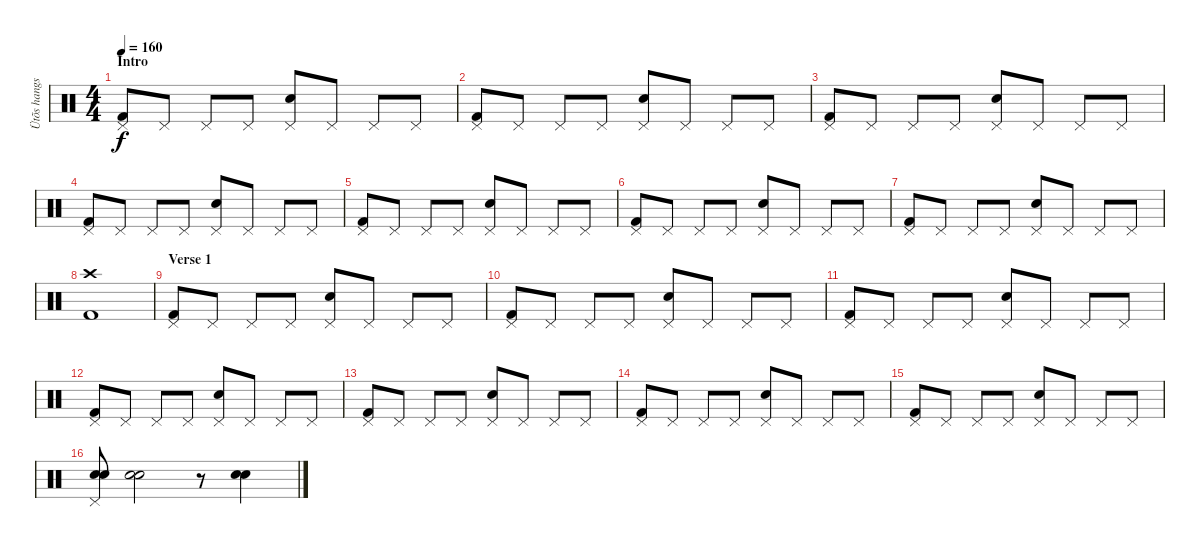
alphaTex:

\track ("Ütõs hangszer" "Ütõs hangs") {instrument percussion}
\staff {score}
\articulation defaults
\ts (4 4)
\section ("" "Intro")
\tempo 160
\clef neutral
\ks c
("Pedal Hi-Hat (hit)" "Kick (hit) 2").8{dy f} "Pedal Hi-Hat (hit)".8 "Pedal Hi-Hat (hit)".8 "Pedal Hi-Hat (hit)".8 ("Pedal Hi-Hat (hit)" "Snare (hit) 2").8 "Pedal Hi-Hat (hit)".8 "Pedal Hi-Hat (hit)".8 "Pedal Hi-Hat (hit)".8 |
("Pedal Hi-Hat (hit)" "Kick (hit) 2").8 "Pedal Hi-Hat (hit)".8 "Pedal Hi-Hat (hit)".8 "Pedal Hi-Hat (hit)".8 ("Pedal Hi-Hat (hit)" "Snare (hit) 2").8 "Pedal Hi-Hat (hit)".8 "Pedal Hi-Hat (hit)".8 "Pedal Hi-Hat (hit)".8 |
("Pedal Hi-Hat (hit)" "Kick (hit) 2").8 "Pedal Hi-Hat (hit)".8 "Pedal Hi-Hat (hit)".8 "Pedal Hi-Hat (hit)".8 ("Pedal Hi-Hat (hit)" "Snare (hit) 2").8 "Pedal Hi-Hat (hit)".8 "Pedal Hi-Hat (hit)".8 "Pedal Hi-Hat (hit)".8 |
("Pedal Hi-Hat (hit)" "Kick (hit) 2").8 "Pedal Hi-Hat (hit)".8 "Pedal Hi-Hat (hit)".8 "Pedal Hi-Hat (hit)".8 ("Pedal Hi-Hat (hit)" "Snare (hit) 2").8 "Pedal Hi-Hat (hit)".8 "Pedal Hi-Hat (hit)".8 "Pedal Hi-Hat (hit)".8 |
("Pedal Hi-Hat (hit)" "Kick (hit) 2").8 "Pedal Hi-Hat (hit)".8 "Pedal Hi-Hat (hit)".8 "Pedal Hi-Hat (hit)".8 ("Pedal Hi-Hat (hit)" "Snare (hit) 2").8 "Pedal Hi-Hat (hit)".8 "Pedal Hi-Hat (hit)".8 "Pedal Hi-Hat (hit)".8 |
("Pedal Hi-Hat (hit)" "Kick (hit) 2").8 "Pedal Hi-Hat (hit)".8 "Pedal Hi-Hat (hit)".8 "Pedal Hi-Hat (hit)".8 ("Pedal Hi-Hat (hit)" "Snare (hit) 2").8 "Pedal Hi-Hat (hit)".8 "Pedal Hi-Hat (hit)".8 "Pedal Hi-Hat (hit)".8 |
("Pedal Hi-Hat (hit)" "Kick (hit) 2").8 "Pedal Hi-Hat (hit)".8 "Pedal Hi-Hat (hit)".8 "Pedal Hi-Hat (hit)".8 ("Pedal Hi-Hat (hit)" "Snare (hit) 2").8 "Pedal Hi-Hat (hit)".8 "Pedal Hi-Hat (hit)".8 "Pedal Hi-Hat (hit)".8 |
("Crash high (hit)" "Kick (hit) 2").1 |
\section ("" "Verse 1")
("Pedal Hi-Hat (hit)" "Kick (hit) 2").8 "Pedal Hi-Hat (hit)".8 "Pedal Hi-Hat (hit)".8 "Pedal Hi-Hat (hit)".8 ("Pedal Hi-Hat (hit)" "Snare (hit) 2").8 "Pedal Hi-Hat (hit)".8 "Pedal Hi-Hat (hit)".8 "Pedal Hi-Hat (hit)".8 |
("Pedal Hi-Hat (hit)" "Kick (hit) 2").8 "Pedal Hi-Hat (hit)".8 "Pedal Hi-Hat (hit)".8 "Pedal Hi-Hat (hit)".8 ("Pedal Hi-Hat (hit)" "Snare (hit) 2").8 "Pedal Hi-Hat (hit)".8 "Pedal Hi-Hat (hit)".8 "Pedal Hi-Hat (hit)".8 |
("Pedal Hi-Hat (hit)" "Kick (hit) 2").8 "Pedal Hi-Hat (hit)".8 "Pedal Hi-Hat (hit)".8 "Pedal Hi-Hat (hit)".8 ("Pedal Hi-Hat (hit)" "Snare (hit) 2").8 "Pedal Hi-Hat (hit)".8 "Pedal Hi-Hat (hit)".8 "Pedal Hi-Hat (hit)".8 |
("Pedal Hi-Hat (hit)" "Kick (hit) 2").8 "Pedal Hi-Hat (hit)".8 "Pedal Hi-Hat (hit)".8 "Pedal Hi-Hat (hit)".8 ("Pedal Hi-Hat (hit)" "Snare (hit) 2").8 "Pedal Hi-Hat (hit)".8 "Pedal Hi-Hat (hit)".8 "Pedal Hi-Hat (hit)".8 |
("Pedal Hi-Hat (hit)" "Kick (hit) 2").8 "Pedal Hi-Hat (hit)".8 "Pedal Hi-Hat (hit)".8 "Pedal Hi-Hat (hit)".8 ("Pedal Hi-Hat (hit)" "Snare (hit) 2").8 "Pedal Hi-Hat (hit)".8 "Pedal Hi-Hat (hit)".8 "Pedal Hi-Hat (hit)".8 |
("Pedal Hi-Hat (hit)" "Kick (hit) 2").8 "Pedal Hi-Hat (hit)".8 "Pedal Hi-Hat (hit)".8 "Pedal Hi-Hat (hit)".8 ("Pedal Hi-Hat (hit)" "Snare (hit) 2").8 "Pedal Hi-Hat (hit)".8 "Pedal Hi-Hat (hit)".8 "Pedal Hi-Hat (hit)".8 |
("Pedal Hi-Hat (hit)" "Kick (hit) 2").8 "Pedal Hi-Hat (hit)".8 "Pedal Hi-Hat (hit)".8 "Pedal Hi-Hat (hit)".8 ("Pedal Hi-Hat (hit)" "Snare (hit) 2").8 "Pedal Hi-Hat (hit)".8 "Pedal Hi-Hat (hit)".8 "Pedal Hi-Hat (hit)".8 |
("Pedal Hi-Hat (hit)" "Snare (hit) 2" "Electric Snare (hit)").8 ("Snare (hit) 2" "Electric Snare (hit)").2 r.8 ("Snare (hit) 2" "Electric Snare (hit)").4
